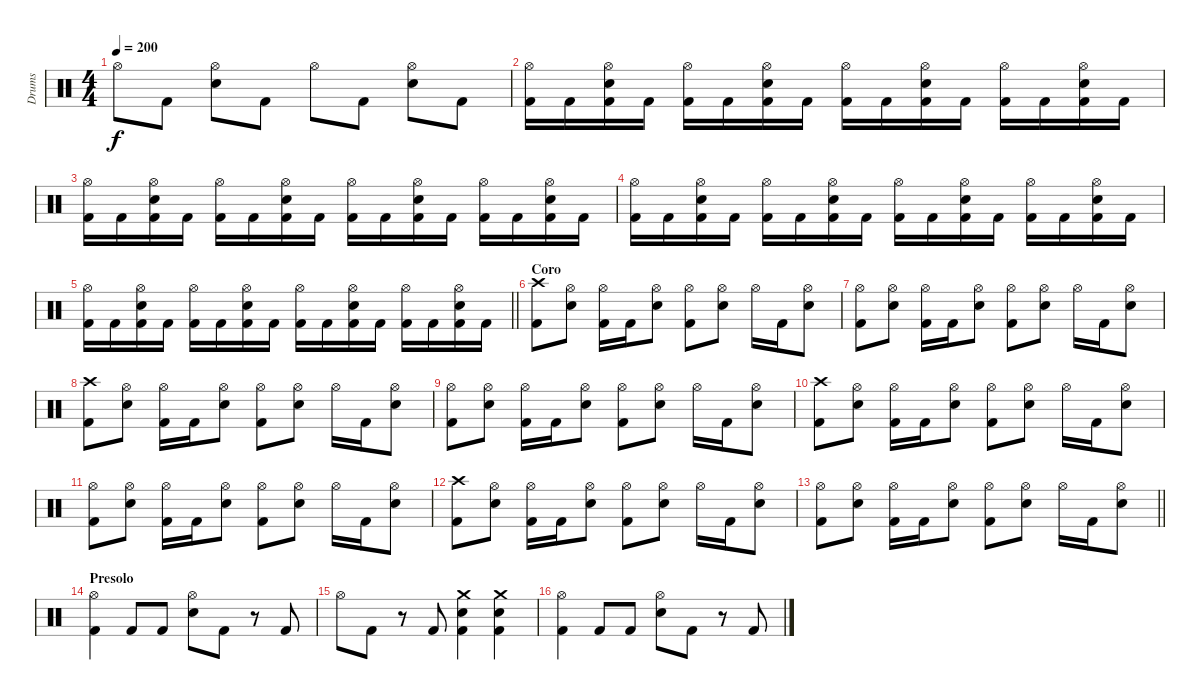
\track ("Drums" "Drums") {instrument percussion}
\staff {score}
\articulation defaults
\ts (4 4)
\tempo 200
\clef neutral
\ks c "Hi-Hat (open)".8{dy f} "Kick (hit) 2".8
("Hi-Hat (open)" "Electric Snare (hit)").8 "Kick (hit) 2".8 "Hi-Hat (open)".8 "Kick (hit) 2".8 ("Hi-Hat (open)" "Electric Snare (hit)").8 "Kick (hit) 2".8 |
("Hi-Hat (open)" "Kick (hit) 2").16 "Kick (hit) 2".16 ("Hi-Hat (open)" "Electric Snare (hit)" "Kick (hit) 2").16 "Kick (hit) 2".16 ("Hi-Hat (open)" "Kick (hit) 2").16 "Kick (hit) 2".16 ("Hi-Hat (open)" "Electric Snare (hit)" "Kick (hit) 2").16 "Kick (hit) 2".16 ("Hi-Hat (open)" "Kick (hit) 2").16 "Kick (hit) 2".16 ("Hi-Hat (open)" "Electric Snare (hit)" "Kick (hit) 2").16 "Kick (hit) 2".16 ("Hi-Hat (open)" "Kick (hit) 2").16 "Kick (hit) 2".16 ("Hi-Hat (open)" "Electric Snare (hit)" "Kick (hit) 2").16 "Kick (hit) 2".16 |
("Hi-Hat (open)" "Kick (hit) 2").16 "Kick (hit) 2".16 ("Hi-Hat (open)" "Electric Snare (hit)" "Kick (hit) 2").16 "Kick (hit) 2".16 ("Hi-Hat (open)" "Kick (hit) 2").16 "Kick (hit) 2".16 ("Hi-Hat (open)" "Electric Snare (hit)" "Kick (hit) 2").16 "Kick (hit) 2".16 ("Hi-Hat (open)" "Kick (hit) 2").16 "Kick (hit) 2".16 ("Hi-Hat (open)" "Electric Snare (hit)" "Kick (hit) 2").16 "Kick (hit) 2".16 ("Hi-Hat (open)" "Kick (hit) 2").16 "Kick (hit) 2".16 ("Hi-Hat (open)" "Electric Snare (hit)" "Kick (hit) 2").16 "Kick (hit) 2".16 |
("Hi-Hat (open)" "Kick (hit) 2").16 "Kick (hit) 2".16 ("Hi-Hat (open)" "Electric Snare (hit)" "Kick (hit) 2").16 "Kick (hit) 2".16 ("Hi-Hat (open)" "Kick (hit) 2").16 "Kick (hit) 2".16 ("Hi-Hat (open)" "Electric Snare (hit)" "Kick (hit) 2").16 "Kick (hit) 2".16 ("Hi-Hat (open)" "Kick (hit) 2").16 "Kick (hit) 2".16 ("Hi-Hat (open)" "Electric Snare (hit)" "Kick (hit) 2").16 "Kick (hit) 2".16 ("Hi-Hat (open)" "Kick (hit) 2").16 "Kick (hit) 2".16 ("Hi-Hat (open)" "Electric Snare (hit)" "Kick (hit) 2").16 "Kick (hit) 2".16 |
\barLineRight lightlight
("Hi-Hat (open)" "Kick (hit) 2").16 "Kick (hit) 2".16 ("Hi-Hat (open)" "Electric Snare (hit)" "Kick (hit) 2").16 "Kick (hit) 2".16 ("Hi-Hat (open)" "Kick (hit) 2").16 "Kick (hit) 2".16 ("Hi-Hat (open)" "Electric Snare (hit)" "Kick (hit) 2").16 "Kick (hit) 2".16 ("Hi-Hat (open)" "Kick (hit) 2").16 "Kick (hit) 2".16 ("Hi-Hat (open)" "Electric Snare (hit)" "Kick (hit) 2").16 "Kick (hit) 2".16 ("Hi-Hat (open)" "Kick (hit) 2").16 "Kick (hit) 2".16 ("Hi-Hat (open)" "Electric Snare (hit)" "Kick (hit) 2").16 "Kick (hit) 2".16 |
\section ("" "Coro")
("Crash high (hit)" "Kick (hit) 2").8 ("Hi-Hat (open)" "Electric Snare (hit)").8 ("Hi-Hat (open)" "Kick (hit) 2").16 "Kick (hit) 2".16 ("Hi-Hat (open)" "Electric Snare (hit)").8 ("Hi-Hat (open)" "Kick (hit) 2").8 ("Hi-Hat (open)" "Electric Snare (hit)").8 "Hi-Hat (open)".16 "Kick (hit) 2".16 ("Hi-Hat (open)" "Electric Snare (hit)").8 |
("Hi-Hat (open)" "Kick (hit) 2").8 ("Hi-Hat (open)" "Electric Snare (hit)").8 ("Hi-Hat (open)" "Kick (hit) 2").16 "Kick (hit) 2".16 ("Hi-Hat (open)" "Electric Snare (hit)").8 ("Hi-Hat (open)" "Kick (hit) 2").8 ("Hi-Hat (open)" "Electric Snare (hit)").8 "Hi-Hat (open)".16 "Kick (hit) 2".16 ("Hi-Hat (open)" "Electric Snare (hit)").8 |
("Crash high (hit)" "Kick (hit) 2").8 ("Hi-Hat (open)" "Electric Snare (hit)").8 ("Hi-Hat (open)" "Kick (hit) 2").16 "Kick (hit) 2".16 ("Hi-Hat (open)" "Electric Snare (hit)").8 ("Hi-Hat (open)" "Kick (hit) 2").8 ("Hi-Hat (open)" "Electric Snare (hit)").8 "Hi-Hat (open)".16 "Kick (hit) 2".16 ("Hi-Hat (open)" "Electric Snare (hit)").8 |
("Hi-Hat (open)" "Kick (hit) 2").8 ("Hi-Hat (open)" "Electric Snare (hit)").8 ("Hi-Hat (open)" "Kick (hit) 2").16 "Kick (hit) 2".16 ("Hi-Hat (open)" "Electric Snare (hit)").8 ("Hi-Hat (open)" "Kick (hit) 2").8 ("Hi-Hat (open)" "Electric Snare (hit)").8 "Hi-Hat (open)".16 "Kick (hit) 2".16 ("Hi-Hat (open)" "Electric Snare (hit)").8 |
("Crash high (hit)" "Kick (hit) 2").8 ("Hi-Hat (open)" "Electric Snare (hit)").8 ("Hi-Hat (open)" "Kick (hit) 2").16 "Kick (hit) 2".16 ("Hi-Hat (open)" "Electric Snare (hit)").8 ("Hi-Hat (open)" "Kick (hit) 2").8 ("Hi-Hat (open)" "Electric Snare (hit)").8 "Hi-Hat (open)".16 "Kick (hit) 2".16 ("Hi-Hat (open)" "Electric Snare (hit)").8 |
("Hi-Hat (open)" "Kick (hit) 2").8 ("Hi-Hat (open)" "Electric Snare (hit)").8 ("Hi-Hat (open)" "Kick (hit) 2").16 "Kick (hit) 2".16 ("Hi-Hat (open)" "Electric Snare (hit)").8 ("Hi-Hat (open)" "Kick (hit) 2").8 ("Hi-Hat (open)" "Electric Snare (hit)").8 "Hi-Hat (open)".16 "Kick (hit) 2".16 ("Hi-Hat (open)" "Electric Snare (hit)").8 |
("Crash high (hit)" "Kick (hit) 2").8 ("Hi-Hat (open)" "Electric Snare (hit)").8 ("Hi-Hat (open)" "Kick (hit) 2").16 "Kick (hit) 2".16 ("Hi-Hat (open)" "Electric Snare (hit)").8 ("Hi-Hat (open)" "Kick (hit) 2").8 ("Hi-Hat (open)" "Electric Snare (hit)").8 "Hi-Hat (open)".16 "Kick (hit) 2".16 ("Hi-Hat (open)" "Electric Snare (hit)").8 |
\barLineRight lightlight
("Hi-Hat (open)" "Kick (hit) 2").8 ("Hi-Hat (open)" "Electric Snare (hit)").8 ("Hi-Hat (open)" "Kick (hit) 2").16 "Kick (hit) 2".16 ("Hi-Hat (open)" "Electric Snare (hit)").8 ("Hi-Hat (open)" "Kick (hit) 2").8 ("Hi-Hat (open)" "Electric Snare (hit)").8 "Hi-Hat (open)".16 "Kick (hit) 2".16 ("Hi-Hat (open)" "Electric Snare (hit)").8 |
\section ("" "Presolo")
("Hi-Hat (open)" "Kick (hit) 2").4 "Kick (hit) 2".8 "Kick (hit) 2".8 ("Hi-Hat (open)" "Electric Snare (hit)").8 "Kick (hit) 2".8 r.8 "Kick (hit) 2".8 |
"Hi-Hat (open)".8 "Kick (hit) 2".8 r.8 "Kick (hit) 2".8 ("Crash medium (hit)" "Electric Snare (hit)" "Kick (hit) 2").4 ("Crash medium (hit)" "Electric Snare (hit)" "Kick (hit) 2").4 |
("Hi-Hat (open)" "Kick (hit) 2").4 "Kick (hit) 2".8 "Kick (hit) 2".8 ("Hi-Hat (open)" "Electric Snare (hit)").8 "Kick (hit) 2".8 r.8 "Kick (hit) 2".8
